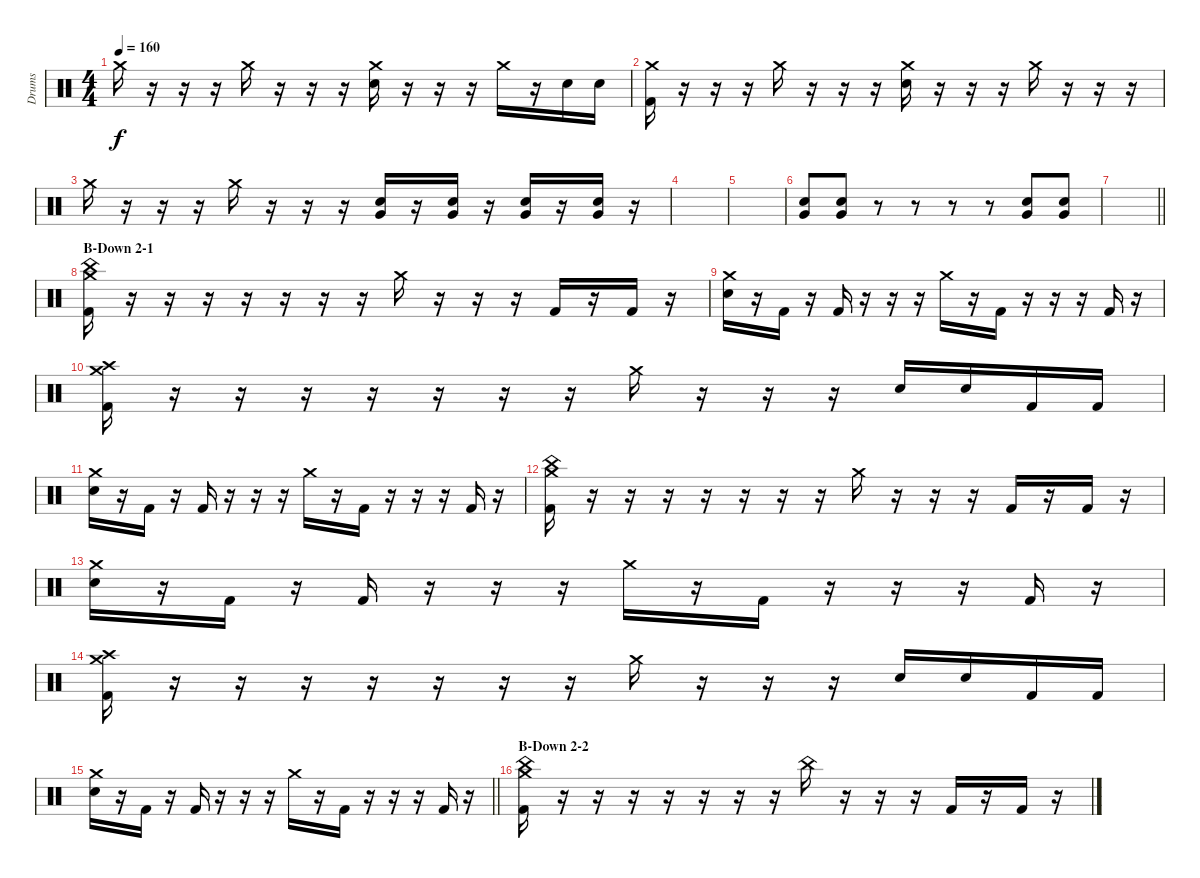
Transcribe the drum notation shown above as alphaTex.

\track ("Drums" "Drums") {instrument percussion}
\staff {score}
\articulation defaults
\ts (4 4)
\tempo 160
\clef neutral
\ks c "Crash medium (hit)".16{dy f}
r.16 r.16 r.16 "Crash medium (hit)".16 r.16 r.16 r.16 ("Crash medium (hit)" "Electric Snare (hit)").16 r.16 r.16 r.16 "Crash medium (hit)".16 r.16 "Electric Snare (hit)".16 "Electric Snare (hit)".16 |
("Crash medium (hit)" "Kick (hit) 2").16 r.16 r.16 r.16 "Crash medium (hit)".16 r.16 r.16 r.16 ("Crash medium (hit)" "Electric Snare (hit)").16 r.16 r.16 r.16 "Crash medium (hit)".16 r.16 r.16 r.16 |
"Crash medium (hit)".16 r.16 r.16 r.16 "Crash medium (hit)".16 r.16 r.16 r.16 ("Very Low Tom (hit)" "Electric Snare (hit)").16 r.16 ("Very Low Tom (hit)" "Electric Snare (hit)").16 r.16 ("Very Low Tom (hit)" "Electric Snare (hit)").16 r.16 ("Very Low Tom (hit)" "Electric Snare (hit)").16 r.16 |
|
|
("Very Low Tom (hit)" "Electric Snare (hit)").8 ("Very Low Tom (hit)" "Electric Snare (hit)").8 r.8 r.8 r.8 r.8 ("Very Low Tom (hit)" "Electric Snare (hit)").8 ("Very Low Tom (hit)" "Electric Snare (hit)").8 |
\barLineRight lightlight
|
\section ("" "B-Down 2-1")
("Crash medium (hit)" "China (hit)" "Kick (hit) 2").16 r.16 r.16 r.16 r.16 r.16 r.16 r.16 "Crash medium (hit)".16 r.16 r.16 r.16 "Kick (hit) 2".16 r.16 "Kick (hit) 2".16 r.16 |
("Crash medium (hit)" "Electric Snare (hit)").16 r.16 "Kick (hit) 2".16 r.16 "Kick (hit) 2".16 r.16 r.16 r.16 "Crash medium (hit)".16 r.16 "Kick (hit) 2".16 r.16 r.16 r.16 "Kick (hit) 2".16 r.16 |
("Crash medium (hit)" "Crash high (hit)" "Kick (hit) 2").16 r.16 r.16 r.16 r.16 r.16 r.16 r.16 "Crash medium (hit)".16 r.16 r.16 r.16 "Electric Snare (hit)".16 "Electric Snare (hit)".16 "Kick (hit) 2".16 "Kick (hit) 2".16 |
("Crash medium (hit)" "Electric Snare (hit)").16 r.16 "Kick (hit) 2".16 r.16 "Kick (hit) 2".16 r.16 r.16 r.16 "Crash medium (hit)".16 r.16 "Kick (hit) 2".16 r.16 r.16 r.16 "Kick (hit) 2".16 r.16 |
("Crash medium (hit)" "China (hit)" "Kick (hit) 2").16 r.16 r.16 r.16 r.16 r.16 r.16 r.16 "Crash medium (hit)".16 r.16 r.16 r.16 "Kick (hit) 2".16 r.16 "Kick (hit) 2".16 r.16 |
("Crash medium (hit)" "Electric Snare (hit)").16 r.16 "Kick (hit) 2".16 r.16 "Kick (hit) 2".16 r.16 r.16 r.16 "Crash medium (hit)".16 r.16 "Kick (hit) 2".16 r.16 r.16 r.16 "Kick (hit) 2".16 r.16 |
("Crash medium (hit)" "Crash high (hit)" "Kick (hit) 2").16 r.16 r.16 r.16 r.16 r.16 r.16 r.16 "Crash medium (hit)".16 r.16 r.16 r.16 "Electric Snare (hit)".16 "Electric Snare (hit)".16 "Kick (hit) 2".16 "Kick (hit) 2".16 |
\barLineRight lightlight
("Crash medium (hit)" "Electric Snare (hit)").16 r.16 "Kick (hit) 2".16 r.16 "Kick (hit) 2".16 r.16 r.16 r.16 "Crash medium (hit)".16 r.16 "Kick (hit) 2".16 r.16 r.16 r.16 "Kick (hit) 2".16 r.16 |
\section ("" "B-Down 2-2")
("Crash medium (hit)" "China (hit)" "Kick (hit) 2").16 r.16 r.16 r.16 r.16 r.16 r.16 r.16 "China (hit)".16 r.16 r.16 r.16 "Kick (hit) 2".16 r.16 "Kick (hit) 2".16 r.16
